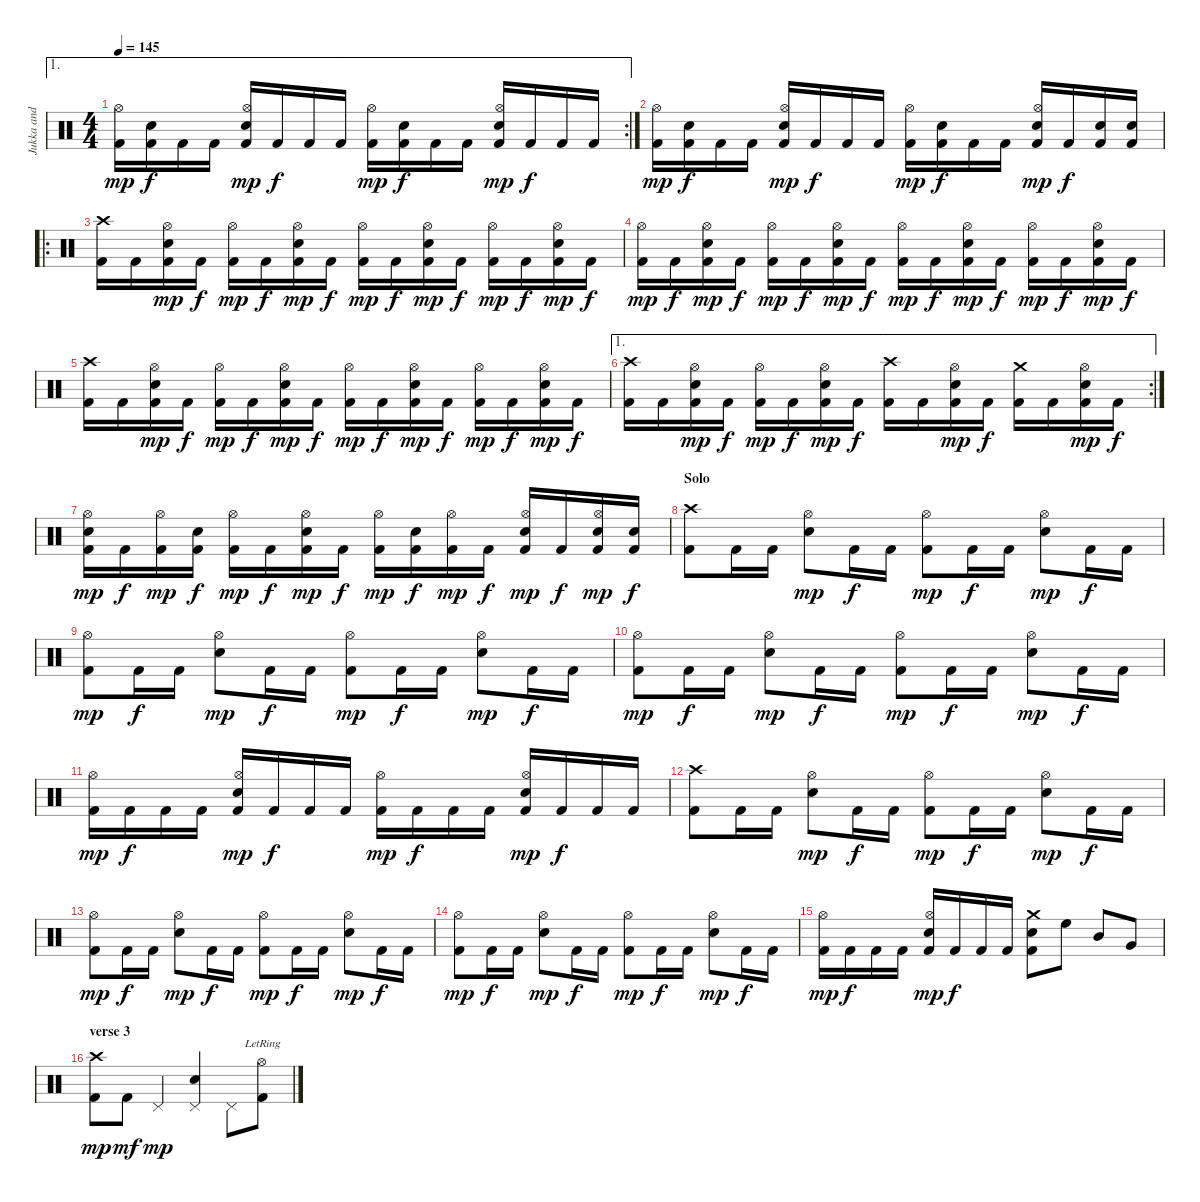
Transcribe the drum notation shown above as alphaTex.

\track ("Jukka and his drums" "Jukka and ") {instrument percussion}
\staff {score}
\articulation defaults
\ae 1
\rc 2
\ts (4 4)
\tempo 145
\clef neutral
\ks c
("Kick (hit) 2" "Hi-Hat (open)").16{dy mp} ("Kick (hit) 2" "Snare (hit) 2").16{dy f} "Kick (hit) 2".16 "Kick (hit) 2".16 ("Kick (hit) 2" "Hi-Hat (open)" "Snare (hit) 2").16{dy mp} "Kick (hit) 2".16{dy f} "Kick (hit) 2".16 "Kick (hit) 2".16 ("Kick (hit) 2" "Hi-Hat (open)").16{dy mp} ("Kick (hit) 2" "Snare (hit) 2").16{dy f} "Kick (hit) 2".16 "Kick (hit) 2".16 ("Kick (hit) 2" "Hi-Hat (open)" "Snare (hit) 2").16{dy mp} "Kick (hit) 2".16{dy f} "Kick (hit) 2".16 "Kick (hit) 2".16 |
("Kick (hit) 2" "Hi-Hat (open)").16{dy mp} ("Kick (hit) 2" "Snare (hit) 2").16{dy f} "Kick (hit) 2".16 "Kick (hit) 2".16 ("Kick (hit) 2" "Hi-Hat (open)" "Snare (hit) 2").16{dy mp} "Kick (hit) 2".16{dy f} "Kick (hit) 2".16 "Kick (hit) 2".16 ("Kick (hit) 2" "Hi-Hat (open)").16{dy mp} ("Kick (hit) 2" "Snare (hit) 2").16{dy f} "Kick (hit) 2".16 "Kick (hit) 2".16 ("Kick (hit) 2" "Hi-Hat (open)" "Snare (hit) 2").16{dy mp} "Kick (hit) 2".16{dy f} ("Kick (hit) 2" "Snare (hit) 2").16 ("Kick (hit) 2" "Snare (hit) 2").16 |
\ro
("Kick (hit) 2" "Crash high (hit)").16 "Kick (hit) 2".16 ("Kick (hit) 2" "Hi-Hat (open)" "Snare (hit) 2").16{dy mp} "Kick (hit) 2".16{dy f} ("Kick (hit) 2" "Hi-Hat (open)").16{dy mp} "Kick (hit) 2".16{dy f} ("Kick (hit) 2" "Hi-Hat (open)" "Snare (hit) 2").16{dy mp} "Kick (hit) 2".16{dy f} ("Kick (hit) 2" "Hi-Hat (open)").16{dy mp} "Kick (hit) 2".16{dy f} ("Kick (hit) 2" "Hi-Hat (open)" "Snare (hit) 2").16{dy mp} "Kick (hit) 2".16{dy f} ("Kick (hit) 2" "Hi-Hat (open)").16{dy mp} "Kick (hit) 2".16{dy f} ("Kick (hit) 2" "Hi-Hat (open)" "Snare (hit) 2").16{dy mp} "Kick (hit) 2".16{dy f} |
("Kick (hit) 2" "Hi-Hat (open)").16{dy mp} "Kick (hit) 2".16{dy f} ("Kick (hit) 2" "Hi-Hat (open)" "Snare (hit) 2").16{dy mp} "Kick (hit) 2".16{dy f} ("Kick (hit) 2" "Hi-Hat (open)").16{dy mp} "Kick (hit) 2".16{dy f} ("Kick (hit) 2" "Hi-Hat (open)" "Snare (hit) 2").16{dy mp} "Kick (hit) 2".16{dy f} ("Kick (hit) 2" "Hi-Hat (open)").16{dy mp} "Kick (hit) 2".16{dy f} ("Kick (hit) 2" "Hi-Hat (open)" "Snare (hit) 2").16{dy mp} "Kick (hit) 2".16{dy f} ("Kick (hit) 2" "Hi-Hat (open)").16{dy mp} "Kick (hit) 2".16{dy f} ("Kick (hit) 2" "Hi-Hat (open)" "Snare (hit) 2").16{dy mp} "Kick (hit) 2".16{dy f} |
("Kick (hit) 2" "Crash high (hit)").16 "Kick (hit) 2".16 ("Kick (hit) 2" "Hi-Hat (open)" "Snare (hit) 2").16{dy mp} "Kick (hit) 2".16{dy f} ("Kick (hit) 2" "Hi-Hat (open)").16{dy mp} "Kick (hit) 2".16{dy f} ("Kick (hit) 2" "Hi-Hat (open)" "Snare (hit) 2").16{dy mp} "Kick (hit) 2".16{dy f} ("Kick (hit) 2" "Hi-Hat (open)").16{dy mp} "Kick (hit) 2".16{dy f} ("Kick (hit) 2" "Hi-Hat (open)" "Snare (hit) 2").16{dy mp} "Kick (hit) 2".16{dy f} ("Kick (hit) 2" "Hi-Hat (open)").16{dy mp} "Kick (hit) 2".16{dy f} ("Kick (hit) 2" "Hi-Hat (open)" "Snare (hit) 2").16{dy mp} "Kick (hit) 2".16{dy f} |
\ae 1
\rc 2
("Kick (hit) 2" "Crash high (hit)").16 "Kick (hit) 2".16 ("Kick (hit) 2" "Hi-Hat (open)" "Snare (hit) 2").16{dy mp} "Kick (hit) 2".16{dy f} ("Kick (hit) 2" "Hi-Hat (open)").16{dy mp} "Kick (hit) 2".16{dy f} ("Kick (hit) 2" "Hi-Hat (open)" "Snare (hit) 2").16{dy mp} "Kick (hit) 2".16{dy f} ("Kick (hit) 2" "Crash high (hit)").16 "Kick (hit) 2".16 ("Kick (hit) 2" "Hi-Hat (open)" "Snare (hit) 2").16{dy mp} "Kick (hit) 2".16{dy f} ("Kick (hit) 2" "Crash medium (hit)").16 "Kick (hit) 2".16 ("Kick (hit) 2" "Hi-Hat (open)" "Snare (hit) 2").16{dy mp} "Kick (hit) 2".16{dy f} |
("Kick (hit) 2" "Hi-Hat (open)" "Snare (hit) 2").16{dy mp} "Kick (hit) 2".16{dy f} ("Kick (hit) 2" "Hi-Hat (open)").16{dy mp} ("Kick (hit) 2" "Snare (hit) 2").16{dy f} ("Kick (hit) 2" "Hi-Hat (open)").16{dy mp} "Kick (hit) 2".16{dy f} ("Kick (hit) 2" "Hi-Hat (open)" "Snare (hit) 2").16{dy mp} "Kick (hit) 2".16{dy f} ("Kick (hit) 2" "Hi-Hat (open)").16{dy mp} ("Kick (hit) 2" "Snare (hit) 2").16{dy f} ("Kick (hit) 2" "Hi-Hat (open)").16{dy mp} "Kick (hit) 2".16{dy f} ("Kick (hit) 2" "Hi-Hat (open)" "Snare (hit) 2").16{dy mp} "Kick (hit) 2".16{dy f} ("Kick (hit) 2" "Hi-Hat (open)" "Snare (hit) 2").16{dy mp} ("Kick (hit) 2" "Snare (hit) 2").16{dy f} |
\section ("" "Solo")
("Kick (hit) 2" "Crash high (hit)").8 "Kick (hit) 2".16 "Kick (hit) 2".16 ("Hi-Hat (open)" "Snare (hit) 2").8{dy mp} "Kick (hit) 2".16{dy f} "Kick (hit) 2".16 ("Kick (hit) 2" "Hi-Hat (open)").8{dy mp} "Kick (hit) 2".16{dy f} "Kick (hit) 2".16 ("Hi-Hat (open)" "Snare (hit) 2").8{dy mp} "Kick (hit) 2".16{dy f} "Kick (hit) 2".16 |
("Kick (hit) 2" "Hi-Hat (open)").8{dy mp} "Kick (hit) 2".16{dy f} "Kick (hit) 2".16 ("Hi-Hat (open)" "Snare (hit) 2").8{dy mp} "Kick (hit) 2".16{dy f} "Kick (hit) 2".16 ("Kick (hit) 2" "Hi-Hat (open)").8{dy mp} "Kick (hit) 2".16{dy f} "Kick (hit) 2".16 ("Hi-Hat (open)" "Snare (hit) 2").8{dy mp} "Kick (hit) 2".16{dy f} "Kick (hit) 2".16 |
("Kick (hit) 2" "Hi-Hat (open)").8{dy mp} "Kick (hit) 2".16{dy f} "Kick (hit) 2".16 ("Hi-Hat (open)" "Snare (hit) 2").8{dy mp} "Kick (hit) 2".16{dy f} "Kick (hit) 2".16 ("Kick (hit) 2" "Hi-Hat (open)").8{dy mp} "Kick (hit) 2".16{dy f} "Kick (hit) 2".16 ("Hi-Hat (open)" "Snare (hit) 2").8{dy mp} "Kick (hit) 2".16{dy f} "Kick (hit) 2".16 |
("Kick (hit) 2" "Hi-Hat (open)").16{dy mp} "Kick (hit) 2".16{dy f} "Kick (hit) 2".16 "Kick (hit) 2".16 ("Kick (hit) 2" "Hi-Hat (open)" "Snare (hit) 2").16{dy mp} "Kick (hit) 2".16{dy f} "Kick (hit) 2".16 "Kick (hit) 2".16 ("Kick (hit) 2" "Hi-Hat (open)").16{dy mp} "Kick (hit) 2".16{dy f} "Kick (hit) 2".16 "Kick (hit) 2".16 ("Kick (hit) 2" "Hi-Hat (open)" "Snare (hit) 2").16{dy mp} "Kick (hit) 2".16{dy f} "Kick (hit) 2".16 "Kick (hit) 2".16 |
("Kick (hit) 2" "Crash high (hit)").8 "Kick (hit) 2".16 "Kick (hit) 2".16 ("Hi-Hat (open)" "Snare (hit) 2").8{dy mp} "Kick (hit) 2".16{dy f} "Kick (hit) 2".16 ("Kick (hit) 2" "Hi-Hat (open)").8{dy mp} "Kick (hit) 2".16{dy f} "Kick (hit) 2".16 ("Hi-Hat (open)" "Snare (hit) 2").8{dy mp} "Kick (hit) 2".16{dy f} "Kick (hit) 2".16 |
("Kick (hit) 2" "Hi-Hat (open)").8{dy mp} "Kick (hit) 2".16{dy f} "Kick (hit) 2".16 ("Hi-Hat (open)" "Snare (hit) 2").8{dy mp} "Kick (hit) 2".16{dy f} "Kick (hit) 2".16 ("Kick (hit) 2" "Hi-Hat (open)").8{dy mp} "Kick (hit) 2".16{dy f} "Kick (hit) 2".16 ("Hi-Hat (open)" "Snare (hit) 2").8{dy mp} "Kick (hit) 2".16{dy f} "Kick (hit) 2".16 |
("Kick (hit) 2" "Hi-Hat (open)").8{dy mp} "Kick (hit) 2".16{dy f} "Kick (hit) 2".16 ("Hi-Hat (open)" "Snare (hit) 2").8{dy mp} "Kick (hit) 2".16{dy f} "Kick (hit) 2".16 ("Kick (hit) 2" "Hi-Hat (open)").8{dy mp} "Kick (hit) 2".16{dy f} "Kick (hit) 2".16 ("Hi-Hat (open)" "Snare (hit) 2").8{dy mp} "Kick (hit) 2".16{dy f} "Kick (hit) 2".16 |
("Kick (hit) 2" "Hi-Hat (open)").16{dy mp} "Kick (hit) 2".16{dy f} "Kick (hit) 2".16 "Kick (hit) 2".16 ("Kick (hit) 2" "Hi-Hat (open)" "Snare (hit) 2").16{dy mp} "Kick (hit) 2".16{dy f} "Kick (hit) 2".16 "Kick (hit) 2".16 ("Kick (hit) 2" "Crash medium (hit)" "Snare (hit) 2").8 "High Floor Tom (hit)".8 "Mid Tom (hit)".8 "Very Low Tom (hit)".8 |
\section ("" "verse 3")
("Kick (hit) 2" "Crash high (hit)").8{dy mp} "Kick (hit) 2".8{dy mf} "Pedal Hi-Hat (hit)".4{dy mp} ("Pedal Hi-Hat (hit)" "Snare (hit) 2").4 "Pedal Hi-Hat (hit)".8 ("Kick (hit) 2" "Hi-Hat (open)"{lr}).8
